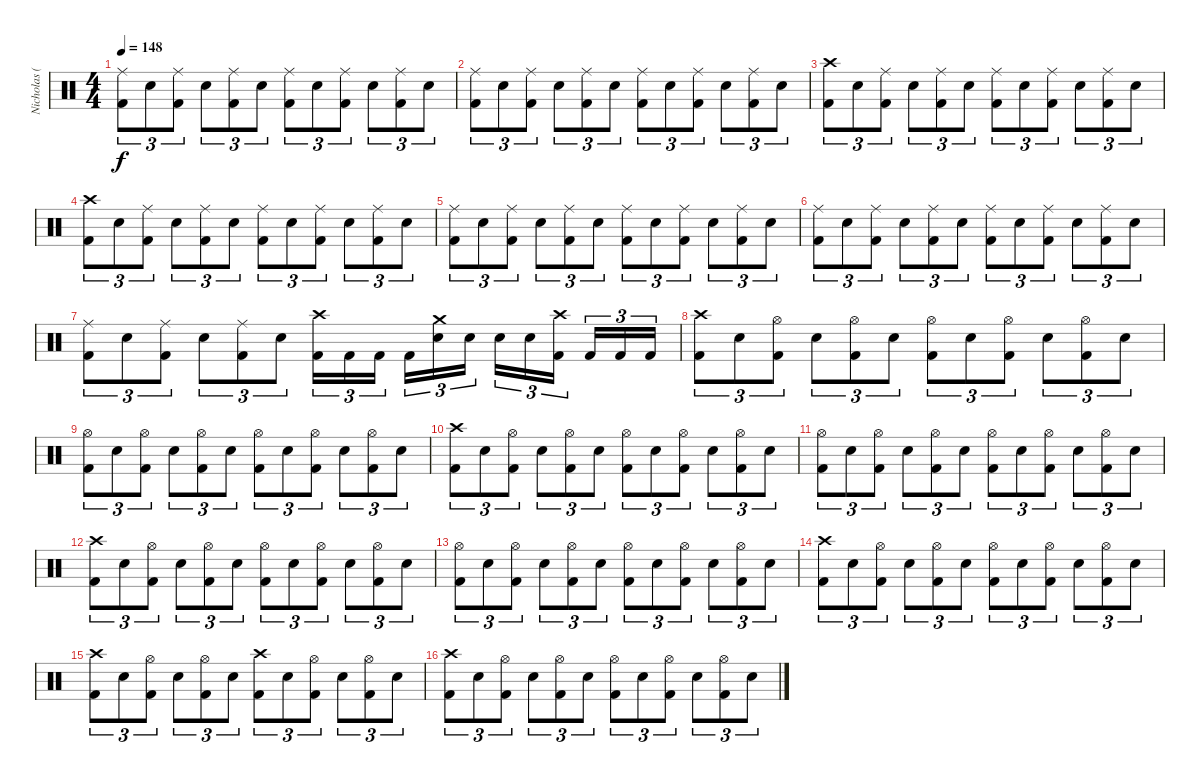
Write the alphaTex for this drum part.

\track ("Nicholas (Drums)" "Nicholas (") {instrument percussion}
\staff {score}
\articulation defaults
\ts (4 4)
\tempo 148
\clef neutral
\ks c
("Ride (middle)" "Kick (hit) 2").8{tu (3 2) dy f} "Electric Snare (hit)".8{tu (3 2)} ("Ride (middle)" "Kick (hit) 2").8{tu (3 2)} "Electric Snare (hit)".8{tu (3 2)} ("Ride (middle)" "Kick (hit) 2").8{tu (3 2)} "Electric Snare (hit)".8{tu (3 2)} ("Ride (middle)" "Kick (hit) 2").8{tu (3 2)} "Electric Snare (hit)".8{tu (3 2)} ("Ride (middle)" "Kick (hit) 2").8{tu (3 2)} "Electric Snare (hit)".8{tu (3 2)} ("Ride (middle)" "Kick (hit) 2").8{tu (3 2)} "Electric Snare (hit)".8{tu (3 2)} |
("Ride (middle)" "Kick (hit) 2").8{tu (3 2)} "Electric Snare (hit)".8{tu (3 2)} ("Ride (middle)" "Kick (hit) 2").8{tu (3 2)} "Electric Snare (hit)".8{tu (3 2)} ("Ride (middle)" "Kick (hit) 2").8{tu (3 2)} "Electric Snare (hit)".8{tu (3 2)} ("Ride (middle)" "Kick (hit) 2").8{tu (3 2)} "Electric Snare (hit)".8{tu (3 2)} ("Ride (middle)" "Kick (hit) 2").8{tu (3 2)} "Electric Snare (hit)".8{tu (3 2)} ("Ride (middle)" "Kick (hit) 2").8{tu (3 2)} "Electric Snare (hit)".8{tu (3 2)} |
("Crash high (hit)" "Kick (hit) 2").8{tu (3 2)} "Electric Snare (hit)".8{tu (3 2)} ("Ride (middle)" "Kick (hit) 2").8{tu (3 2)} "Electric Snare (hit)".8{tu (3 2)} ("Ride (middle)" "Kick (hit) 2").8{tu (3 2)} "Electric Snare (hit)".8{tu (3 2)} ("Ride (middle)" "Kick (hit) 2").8{tu (3 2)} "Electric Snare (hit)".8{tu (3 2)} ("Ride (middle)" "Kick (hit) 2").8{tu (3 2)} "Electric Snare (hit)".8{tu (3 2)} ("Ride (middle)" "Kick (hit) 2").8{tu (3 2)} "Electric Snare (hit)".8{tu (3 2)} |
("Crash high (hit)" "Kick (hit) 2").8{tu (3 2)} "Electric Snare (hit)".8{tu (3 2)} ("Ride (middle)" "Kick (hit) 2").8{tu (3 2)} "Electric Snare (hit)".8{tu (3 2)} ("Ride (middle)" "Kick (hit) 2").8{tu (3 2)} "Electric Snare (hit)".8{tu (3 2)} ("Ride (middle)" "Kick (hit) 2").8{tu (3 2)} "Electric Snare (hit)".8{tu (3 2)} ("Ride (middle)" "Kick (hit) 2").8{tu (3 2)} "Electric Snare (hit)".8{tu (3 2)} ("Ride (middle)" "Kick (hit) 2").8{tu (3 2)} "Electric Snare (hit)".8{tu (3 2)} |
("Ride (middle)" "Kick (hit) 2").8{tu (3 2)} "Electric Snare (hit)".8{tu (3 2)} ("Ride (middle)" "Kick (hit) 2").8{tu (3 2)} "Electric Snare (hit)".8{tu (3 2)} ("Ride (middle)" "Kick (hit) 2").8{tu (3 2)} "Electric Snare (hit)".8{tu (3 2)} ("Ride (middle)" "Kick (hit) 2").8{tu (3 2)} "Electric Snare (hit)".8{tu (3 2)} ("Ride (middle)" "Kick (hit) 2").8{tu (3 2)} "Electric Snare (hit)".8{tu (3 2)} ("Ride (middle)" "Kick (hit) 2").8{tu (3 2)} "Electric Snare (hit)".8{tu (3 2)} |
("Ride (middle)" "Kick (hit) 2").8{tu (3 2)} "Electric Snare (hit)".8{tu (3 2)} ("Ride (middle)" "Kick (hit) 2").8{tu (3 2)} "Electric Snare (hit)".8{tu (3 2)} ("Ride (middle)" "Kick (hit) 2").8{tu (3 2)} "Electric Snare (hit)".8{tu (3 2)} ("Ride (middle)" "Kick (hit) 2").8{tu (3 2)} "Electric Snare (hit)".8{tu (3 2)} ("Ride (middle)" "Kick (hit) 2").8{tu (3 2)} "Electric Snare (hit)".8{tu (3 2)} ("Ride (middle)" "Kick (hit) 2").8{tu (3 2)} "Electric Snare (hit)".8{tu (3 2)} |
("Ride (middle)" "Kick (hit) 2").8{tu (3 2)} "Electric Snare (hit)".8{tu (3 2)} ("Ride (middle)" "Kick (hit) 2").8{tu (3 2)} "Electric Snare (hit)".8{tu (3 2)} ("Ride (middle)" "Kick (hit) 2").8{tu (3 2)} "Electric Snare (hit)".8{tu (3 2)} ("Crash high (hit)" "Kick (hit) 2").16{tu (3 2)} "Kick (hit) 2".16{tu (3 2)} "Kick (hit) 2".16{tu (3 2)} "Kick (hit) 2".16{tu (3 2)} ("Crash medium (hit)" "Electric Snare (hit)").16{tu (3 2)} "Electric Snare (hit)".16{tu (3 2)} "Electric Snare (hit)".16{tu (3 2)} "Electric Snare (hit)".16{tu (3 2)} ("Crash high (hit)" "Kick (hit) 2").16{tu (3 2)} "Kick (hit) 2".16{tu (3 2)} "Kick (hit) 2".16{tu (3 2)} "Kick (hit) 2".16{tu (3 2)} |
("Crash high (hit)" "Kick (hit) 2").8{tu (3 2)} "Electric Snare (hit)".8{tu (3 2)} ("Hi-Hat (open)" "Kick (hit) 2").8{tu (3 2)} "Electric Snare (hit)".8{tu (3 2)} ("Hi-Hat (open)" "Kick (hit) 2").8{tu (3 2)} "Electric Snare (hit)".8{tu (3 2)} ("Hi-Hat (open)" "Kick (hit) 2").8{tu (3 2)} "Electric Snare (hit)".8{tu (3 2)} ("Hi-Hat (open)" "Kick (hit) 2").8{tu (3 2)} "Electric Snare (hit)".8{tu (3 2)} ("Hi-Hat (open)" "Kick (hit) 2").8{tu (3 2)} "Electric Snare (hit)".8{tu (3 2)} |
("Hi-Hat (open)" "Kick (hit) 2").8{tu (3 2)} "Electric Snare (hit)".8{tu (3 2)} ("Hi-Hat (open)" "Kick (hit) 2").8{tu (3 2)} "Electric Snare (hit)".8{tu (3 2)} ("Hi-Hat (open)" "Kick (hit) 2").8{tu (3 2)} "Electric Snare (hit)".8{tu (3 2)} ("Hi-Hat (open)" "Kick (hit) 2").8{tu (3 2)} "Electric Snare (hit)".8{tu (3 2)} ("Hi-Hat (open)" "Kick (hit) 2").8{tu (3 2)} "Electric Snare (hit)".8{tu (3 2)} ("Hi-Hat (open)" "Kick (hit) 2").8{tu (3 2)} "Electric Snare (hit)".8{tu (3 2)} |
("Crash high (hit)" "Kick (hit) 2").8{tu (3 2)} "Electric Snare (hit)".8{tu (3 2)} ("Hi-Hat (open)" "Kick (hit) 2").8{tu (3 2)} "Electric Snare (hit)".8{tu (3 2)} ("Hi-Hat (open)" "Kick (hit) 2").8{tu (3 2)} "Electric Snare (hit)".8{tu (3 2)} ("Hi-Hat (open)" "Kick (hit) 2").8{tu (3 2)} "Electric Snare (hit)".8{tu (3 2)} ("Hi-Hat (open)" "Kick (hit) 2").8{tu (3 2)} "Electric Snare (hit)".8{tu (3 2)} ("Hi-Hat (open)" "Kick (hit) 2").8{tu (3 2)} "Electric Snare (hit)".8{tu (3 2)} |
("Hi-Hat (open)" "Kick (hit) 2").8{tu (3 2)} "Electric Snare (hit)".8{tu (3 2)} ("Hi-Hat (open)" "Kick (hit) 2").8{tu (3 2)} "Electric Snare (hit)".8{tu (3 2)} ("Hi-Hat (open)" "Kick (hit) 2").8{tu (3 2)} "Electric Snare (hit)".8{tu (3 2)} ("Hi-Hat (open)" "Kick (hit) 2").8{tu (3 2)} "Electric Snare (hit)".8{tu (3 2)} ("Hi-Hat (open)" "Kick (hit) 2").8{tu (3 2)} "Electric Snare (hit)".8{tu (3 2)} ("Hi-Hat (open)" "Kick (hit) 2").8{tu (3 2)} "Electric Snare (hit)".8{tu (3 2)} |
("Crash high (hit)" "Kick (hit) 2").8{tu (3 2)} "Electric Snare (hit)".8{tu (3 2)} ("Hi-Hat (open)" "Kick (hit) 2").8{tu (3 2)} "Electric Snare (hit)".8{tu (3 2)} ("Hi-Hat (open)" "Kick (hit) 2").8{tu (3 2)} "Electric Snare (hit)".8{tu (3 2)} ("Hi-Hat (open)" "Kick (hit) 2").8{tu (3 2)} "Electric Snare (hit)".8{tu (3 2)} ("Hi-Hat (open)" "Kick (hit) 2").8{tu (3 2)} "Electric Snare (hit)".8{tu (3 2)} ("Hi-Hat (open)" "Kick (hit) 2").8{tu (3 2)} "Electric Snare (hit)".8{tu (3 2)} |
("Hi-Hat (open)" "Kick (hit) 2").8{tu (3 2)} "Electric Snare (hit)".8{tu (3 2)} ("Hi-Hat (open)" "Kick (hit) 2").8{tu (3 2)} "Electric Snare (hit)".8{tu (3 2)} ("Hi-Hat (open)" "Kick (hit) 2").8{tu (3 2)} "Electric Snare (hit)".8{tu (3 2)} ("Hi-Hat (open)" "Kick (hit) 2").8{tu (3 2)} "Electric Snare (hit)".8{tu (3 2)} ("Hi-Hat (open)" "Kick (hit) 2").8{tu (3 2)} "Electric Snare (hit)".8{tu (3 2)} ("Hi-Hat (open)" "Kick (hit) 2").8{tu (3 2)} "Electric Snare (hit)".8{tu (3 2)} |
("Crash high (hit)" "Kick (hit) 2").8{tu (3 2)} "Electric Snare (hit)".8{tu (3 2)} ("Hi-Hat (open)" "Kick (hit) 2").8{tu (3 2)} "Electric Snare (hit)".8{tu (3 2)} ("Hi-Hat (open)" "Kick (hit) 2").8{tu (3 2)} "Electric Snare (hit)".8{tu (3 2)} ("Hi-Hat (open)" "Kick (hit) 2").8{tu (3 2)} "Electric Snare (hit)".8{tu (3 2)} ("Hi-Hat (open)" "Kick (hit) 2").8{tu (3 2)} "Electric Snare (hit)".8{tu (3 2)} ("Hi-Hat (open)" "Kick (hit) 2").8{tu (3 2)} "Electric Snare (hit)".8{tu (3 2)} |
("Crash high (hit)" "Kick (hit) 2").8{tu (3 2)} "Electric Snare (hit)".8{tu (3 2)} ("Hi-Hat (open)" "Kick (hit) 2").8{tu (3 2)} "Electric Snare (hit)".8{tu (3 2)} ("Hi-Hat (open)" "Kick (hit) 2").8{tu (3 2)} "Electric Snare (hit)".8{tu (3 2)} ("Crash high (hit)" "Kick (hit) 2").8{tu (3 2)} "Electric Snare (hit)".8{tu (3 2)} ("Hi-Hat (open)" "Kick (hit) 2").8{tu (3 2)} "Electric Snare (hit)".8{tu (3 2)} ("Hi-Hat (open)" "Kick (hit) 2").8{tu (3 2)} "Electric Snare (hit)".8{tu (3 2)} |
("Crash high (hit)" "Kick (hit) 2").8{tu (3 2)} "Electric Snare (hit)".8{tu (3 2)} ("Hi-Hat (open)" "Kick (hit) 2").8{tu (3 2)} "Electric Snare (hit)".8{tu (3 2)} ("Hi-Hat (open)" "Kick (hit) 2").8{tu (3 2)} "Electric Snare (hit)".8{tu (3 2)} ("Hi-Hat (open)" "Kick (hit) 2").8{tu (3 2)} "Electric Snare (hit)".8{tu (3 2)} ("Hi-Hat (open)" "Kick (hit) 2").8{tu (3 2)} "Electric Snare (hit)".8{tu (3 2)} ("Hi-Hat (open)" "Kick (hit) 2").8{tu (3 2)} "Electric Snare (hit)".8{tu (3 2)}
